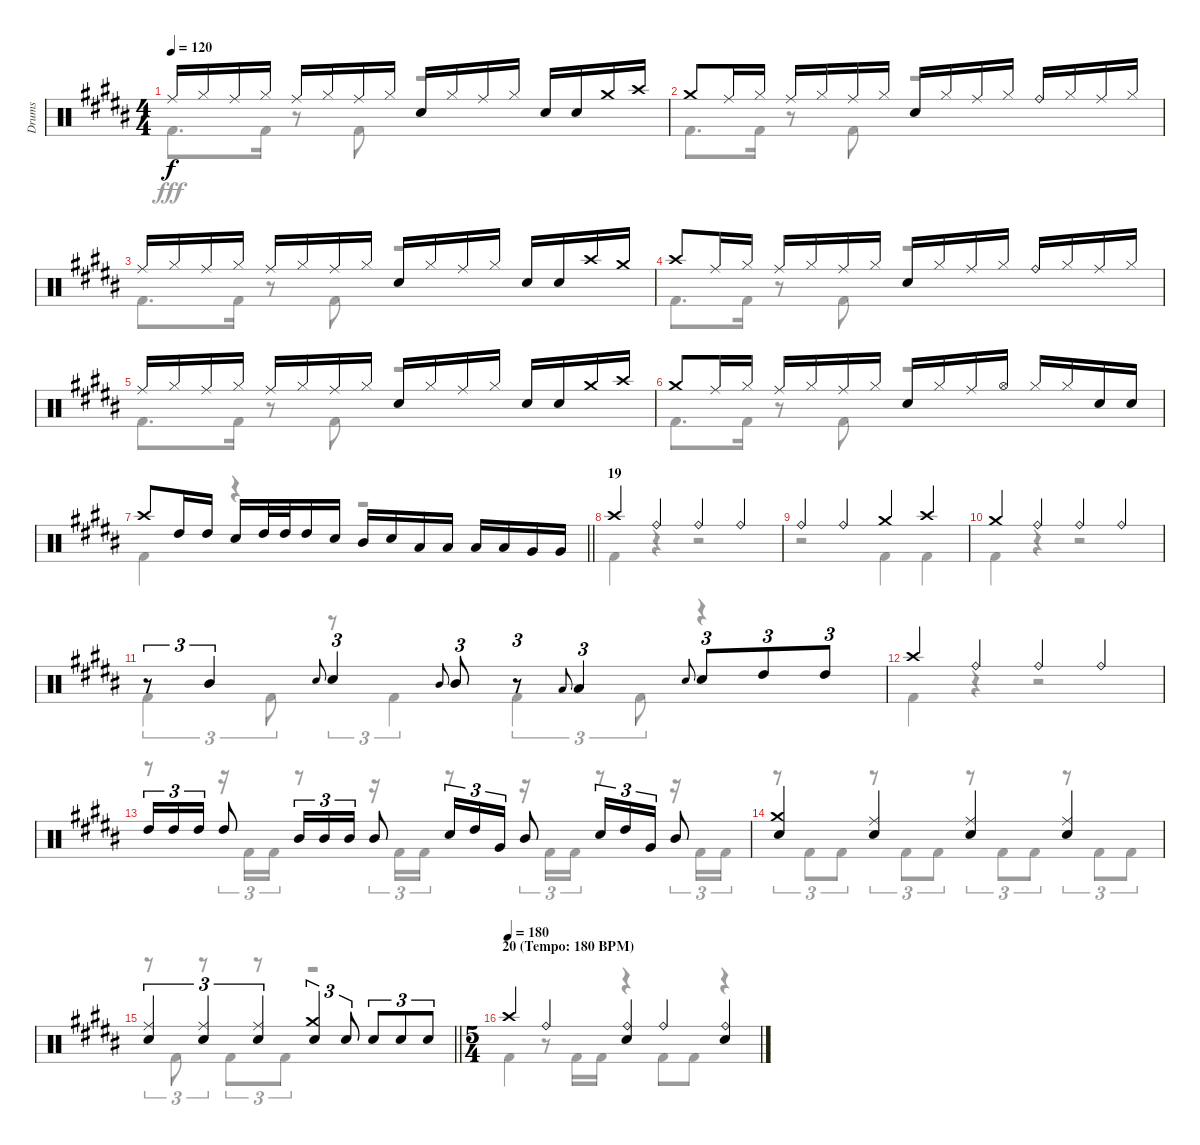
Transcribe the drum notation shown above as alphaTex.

\track ("Drums" "Drums") {instrument percussion}
\staff {score}
\articulation defaults
\voice
\ts (4 4)
\tempo 120
\clef neutral
\ks b "Ride (middle)".16{dy f} "Hi-Hat (closed)".16 "Ride (middle)".16 "Hi-Hat (closed)".16 "Ride (middle)".16 "Hi-Hat (closed)".16 "Ride (middle)".16 "Hi-Hat (closed)".16 "Snare (hit) 2".16 "Hi-Hat (closed)".16 "Ride (middle)".16 "Hi-Hat (closed)".16 "Snare (hit) 2".16 "Snare (hit) 2".16 "Crash medium (hit)".16 "Crash high (hit)".16
|
"Crash medium (hit)".8 "Ride (middle)".16 "Hi-Hat (closed)".16 "Ride (middle)".16 "Hi-Hat (closed)".16 "Ride (middle)".16 "Hi-Hat (closed)".16 "Snare (hit) 2".16 "Hi-Hat (closed)".16 "Ride (middle)".16 "Hi-Hat (closed)".16 "Ride (bell)".16 "Hi-Hat (closed)".16 "Ride (middle)".16 "Hi-Hat (closed)".16 |
"Ride (middle)".16 "Hi-Hat (closed)".16 "Ride (middle)".16 "Hi-Hat (closed)".16 "Ride (middle)".16 "Hi-Hat (closed)".16 "Ride (middle)".16 "Hi-Hat (closed)".16 "Snare (hit) 2".16 "Hi-Hat (closed)".16 "Ride (middle)".16 "Hi-Hat (closed)".16 "Snare (hit) 2".16 "Snare (hit) 2".16 "Crash high (hit)".16 "Crash medium (hit)".16 |
"Crash high (hit)".8 "Ride (middle)".16 "Hi-Hat (closed)".16 "Ride (middle)".16 "Hi-Hat (closed)".16 "Ride (middle)".16 "Hi-Hat (closed)".16 "Snare (hit) 2".16 "Hi-Hat (closed)".16 "Ride (middle)".16 "Hi-Hat (closed)".16 "Ride (bell)".16 "Hi-Hat (closed)".16 "Ride (middle)".16 "Hi-Hat (closed)".16 |
"Ride (middle)".16 "Hi-Hat (closed)".16 "Ride (middle)".16 "Hi-Hat (closed)".16 "Ride (middle)".16 "Hi-Hat (closed)".16 "Ride (middle)".16 "Hi-Hat (closed)".16 "Snare (hit) 2".16 "Hi-Hat (closed)".16 "Ride (middle)".16 "Hi-Hat (closed)".16 "Snare (hit) 2".16 "Snare (hit) 2".16 "Crash medium (hit)".16 "Crash high (hit)".16 |
"Crash medium (hit)".8 "Ride (middle)".16 "Hi-Hat (closed)".16 "Ride (middle)".16 "Hi-Hat (closed)".16 "Ride (middle)".16 "Hi-Hat (closed)".16 "Snare (hit) 2".16 "Hi-Hat (closed)".16 "Ride (middle)".16 "Hi-Hat (open)".16 "Hi-Hat (closed)".16 "Hi-Hat (closed)".16 "Snare (hit) 2".16 "Snare (hit) 2".16 |
\barLineRight lightlight "Crash high (hit)".8 "High Tom (hit)".16 "High Tom (hit)".16 "Snare (hit) 2".16 "High Tom (hit)".32 "High Tom (hit)".32 "High Tom (hit)".16 "Snare (hit) 2".16 "Mid Tom (hit)".16 "Snare (hit) 2".16 "Low Tom (hit)".16 "Low Tom (hit)".16 "Low Tom (hit)".16 "Low Tom (hit)".16 "Very Low Tom (hit)".16 "Very Low Tom (hit)".16
|
\section ("" "19")
"Crash high (hit)".4 "Ride (bell)".4 "Ride (bell)".4 "Ride (bell)".4 |
"Ride (bell)".4 "Ride (bell)".4 "Crash medium (hit)".4 "Crash high (hit)".4 |
"Crash medium (hit)".4 "Ride (bell)".4 "Ride (bell)".4 "Ride (bell)".4 |
r.8{tu (3 2)} "Mid Tom (hit)".4{tu (3 2)} "Snare (hit) 2".8{gr onbeat} "Snare (hit) 2".4{tu (3 2)} "Mid Tom (hit)".8{gr onbeat} "Mid Tom (hit)".8{tu (3 2)} r.8{tu (3 2)} "Low Tom (hit)".8{gr onbeat} "Low Tom (hit)".4{tu (3 2)} "Snare (hit) 2".8{gr onbeat} "Snare (hit) 2".8{tu (3 2)} "High Tom (hit)".8{tu (3 2)} "High Tom (hit)".8{tu (3 2)} |
"Crash high (hit)".4 "Ride (bell)".4 "Ride (bell)".4 "Ride (bell)".4 |
"High Tom (hit)".16{tu (3 2)} "High Tom (hit)".16{tu (3 2)} "High Tom (hit)".16{tu (3 2)} "High Tom (hit)".8 "Mid Tom (hit)".16{tu (3 2)} "Mid Tom (hit)".16{tu (3 2)} "Mid Tom (hit)".16{tu (3 2)} "Mid Tom (hit)".8 "Snare (hit) 2".16{tu (3 2)} "High Tom (hit)".16{tu (3 2)} "Very Low Tom (hit)".16{tu (3 2)} "Mid Tom (hit)".8 "Snare (hit) 2".16{tu (3 2)} "High Tom (hit)".16{tu (3 2)} "Very Low Tom (hit)".16{tu (3 2)} "Mid Tom (hit)".8 |
("Crash medium (hit)" "Snare (hit) 2").4 ("Ride (middle)" "Snare (hit) 2").4 ("Ride (middle)" "Snare (hit) 2").4 ("Ride (middle)" "Snare (hit) 2").4 |
\barLineRight lightlight
("Ride (middle)" "Snare (hit) 2").4{tu (3 2)} ("Ride (middle)" "Snare (hit) 2").4{tu (3 2)} ("Ride (middle)" "Snare (hit) 2").4{tu (3 2)} ("Crash medium (hit)" "Snare (hit) 2").4{tu (3 2)} "Snare (hit) 2".8{tu (3 2)} "Snare (hit) 2".8{tu (3 2)} "Snare (hit) 2".8{tu (3 2)} "Snare (hit) 2".8{tu (3 2)} |
\ts (5 4)
\section ("" "20 (Tempo: 180 BPM)")
\tempo (180)
"Crash high (hit)".4 "Ride (bell)".4 ("Ride (bell)" "Snare (hit) 2").4 "Ride (bell)".4 ("Ride (bell)" "Snare (hit) 2").4
\voice
\clef neutral
\ottava regular
\simile none
\ks b "Kick (hit) 2".8{d dy fff} "Kick (hit) 2".16
r.8 "Kick (hit) 2".8 r.2 |
"Kick (hit) 2".8{d} "Kick (hit) 2".16 r.8 "Kick (hit) 2".8 r.2 |
"Kick (hit) 2".8{d} "Kick (hit) 2".16 r.8 "Kick (hit) 2".8 r.2 |
"Kick (hit) 2".8{d} "Kick (hit) 2".16 r.8 "Kick (hit) 2".8 r.2 |
"Kick (hit) 2".8{d} "Kick (hit) 2".16 r.8 "Kick (hit) 2".8 r.2 |
"Kick (hit) 2".8{d} "Kick (hit) 2".16 r.8 "Kick (hit) 2".8 r.2 |
\barLineRight lightlight "Kick (hit) 2".4
r.4 r.2 |
"Kick (hit) 2".4 r.4 r.2 |
r.2 "Kick (hit) 2".4 "Kick (hit) 2".4 |
"Kick (hit) 2".4 r.4 r.2 |
"Kick (hit) 2".4{tu (3 2)} "Kick (hit) 2".8{tu (3 2)} r.8{tu (3 2)} "Kick (hit) 2".4{tu (3 2)} "Kick (hit) 2".4{tu (3 2)} "Kick (hit) 2".8{tu (3 2)} r.4 |
"Kick (hit) 2".4 r.4 r.2 |
r.8 r.16{tu (3 2)} "Kick (hit) 2".16{tu (3 2)} "Kick (hit) 2".16{tu (3 2)} r.8 r.16{tu (3 2)} "Kick (hit) 2".16{tu (3 2)} "Kick (hit) 2".16{tu (3 2)} r.8 r.16{tu (3 2)} "Kick (hit) 2".16{tu (3 2)} "Kick (hit) 2".16{tu (3 2)} r.8 r.16{tu (3 2)} "Kick (hit) 2".16{tu (3 2)} "Kick (hit) 2".16{tu (3 2)} |
r.8{tu (3 2)} "Kick (hit) 2".8{tu (3 2)} "Kick (hit) 2".8{tu (3 2)} r.8{tu (3 2)} "Kick (hit) 2".8{tu (3 2)} "Kick (hit) 2".8{tu (3 2)} r.8{tu (3 2)} "Kick (hit) 2".8{tu (3 2)} "Kick (hit) 2".8{tu (3 2)} r.8{tu (3 2)} "Kick (hit) 2".8{tu (3 2)} "Kick (hit) 2".8{tu (3 2)} |
\barLineRight lightlight
r.8{tu (3 2)} "Kick (hit) 2".8{tu (3 2)} r.8{tu (3 2)} "Kick (hit) 2".8{tu (3 2)} r.8{tu (3 2)} "Kick (hit) 2".8{tu (3 2)} r.2 |
"Kick (hit) 2".4 r.8 "Kick (hit) 2".16 "Kick (hit) 2".16 r.4 "Kick (hit) 2".8 "Kick (hit) 2".8 r.4
